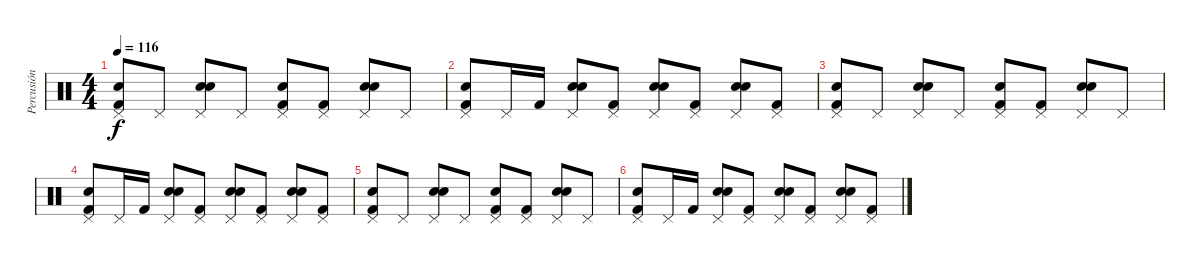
\track ("Percusión" "Percusión") {instrument percussion}
\staff {score}
\articulation defaults
\ts (4 4)
\tempo 116
\clef neutral
\ks c
("Hand Clap (hit)" "Pedal Hi-Hat (hit)" "Kick (hit) 2").8{dy f volume 6} "Pedal Hi-Hat (hit)".8 ("Hand Clap (hit)" "Pedal Hi-Hat (hit)" "Snare (hit) 2").8 "Pedal Hi-Hat (hit)".8 ("Hand Clap (hit)" "Pedal Hi-Hat (hit)" "Kick (hit) 2").8 ("Pedal Hi-Hat (hit)" "Kick (hit) 2").8 ("Hand Clap (hit)" "Pedal Hi-Hat (hit)" "Snare (hit) 2").8 "Pedal Hi-Hat (hit)".8 |
("Hand Clap (hit)" "Pedal Hi-Hat (hit)" "Kick (hit) 2").8 "Pedal Hi-Hat (hit)".16 "Kick (hit) 2".16 ("Hand Clap (hit)" "Pedal Hi-Hat (hit)" "Snare (hit) 2").8 ("Pedal Hi-Hat (hit)" "Kick (hit) 2").8 ("Hand Clap (hit)" "Pedal Hi-Hat (hit)" "Snare (hit) 2").8 ("Pedal Hi-Hat (hit)" "Kick (hit) 2").8 ("Hand Clap (hit)" "Pedal Hi-Hat (hit)" "Snare (hit) 2").8 ("Pedal Hi-Hat (hit)" "Kick (hit) 2").8 |
("Hand Clap (hit)" "Pedal Hi-Hat (hit)" "Kick (hit) 2").8{volume 4} "Pedal Hi-Hat (hit)".8 ("Hand Clap (hit)" "Pedal Hi-Hat (hit)" "Snare (hit) 2").8 "Pedal Hi-Hat (hit)".8 ("Hand Clap (hit)" "Pedal Hi-Hat (hit)" "Kick (hit) 2").8 ("Pedal Hi-Hat (hit)" "Kick (hit) 2").8 ("Hand Clap (hit)" "Pedal Hi-Hat (hit)" "Snare (hit) 2").8 "Pedal Hi-Hat (hit)".8 |
("Hand Clap (hit)" "Pedal Hi-Hat (hit)" "Kick (hit) 2").8 "Pedal Hi-Hat (hit)".16 "Kick (hit) 2".16 ("Hand Clap (hit)" "Pedal Hi-Hat (hit)" "Snare (hit) 2").8 ("Pedal Hi-Hat (hit)" "Kick (hit) 2").8 ("Hand Clap (hit)" "Pedal Hi-Hat (hit)" "Snare (hit) 2").8 ("Pedal Hi-Hat (hit)" "Kick (hit) 2").8 ("Hand Clap (hit)" "Pedal Hi-Hat (hit)" "Snare (hit) 2").8 ("Pedal Hi-Hat (hit)" "Kick (hit) 2").8 |
("Hand Clap (hit)" "Pedal Hi-Hat (hit)" "Kick (hit) 2").8{volume 2} "Pedal Hi-Hat (hit)".8 ("Hand Clap (hit)" "Pedal Hi-Hat (hit)" "Snare (hit) 2").8 "Pedal Hi-Hat (hit)".8 ("Hand Clap (hit)" "Pedal Hi-Hat (hit)" "Kick (hit) 2").8 ("Pedal Hi-Hat (hit)" "Kick (hit) 2").8 ("Hand Clap (hit)" "Pedal Hi-Hat (hit)" "Snare (hit) 2").8 "Pedal Hi-Hat (hit)".8 |
("Hand Clap (hit)" "Pedal Hi-Hat (hit)" "Kick (hit) 2").8 "Pedal Hi-Hat (hit)".16 "Kick (hit) 2".16 ("Hand Clap (hit)" "Pedal Hi-Hat (hit)" "Snare (hit) 2").8 ("Pedal Hi-Hat (hit)" "Kick (hit) 2").8 ("Hand Clap (hit)" "Pedal Hi-Hat (hit)" "Snare (hit) 2").8 ("Pedal Hi-Hat (hit)" "Kick (hit) 2").8 ("Hand Clap (hit)" "Pedal Hi-Hat (hit)" "Snare (hit) 2").8 ("Pedal Hi-Hat (hit)" "Kick (hit) 2").8
